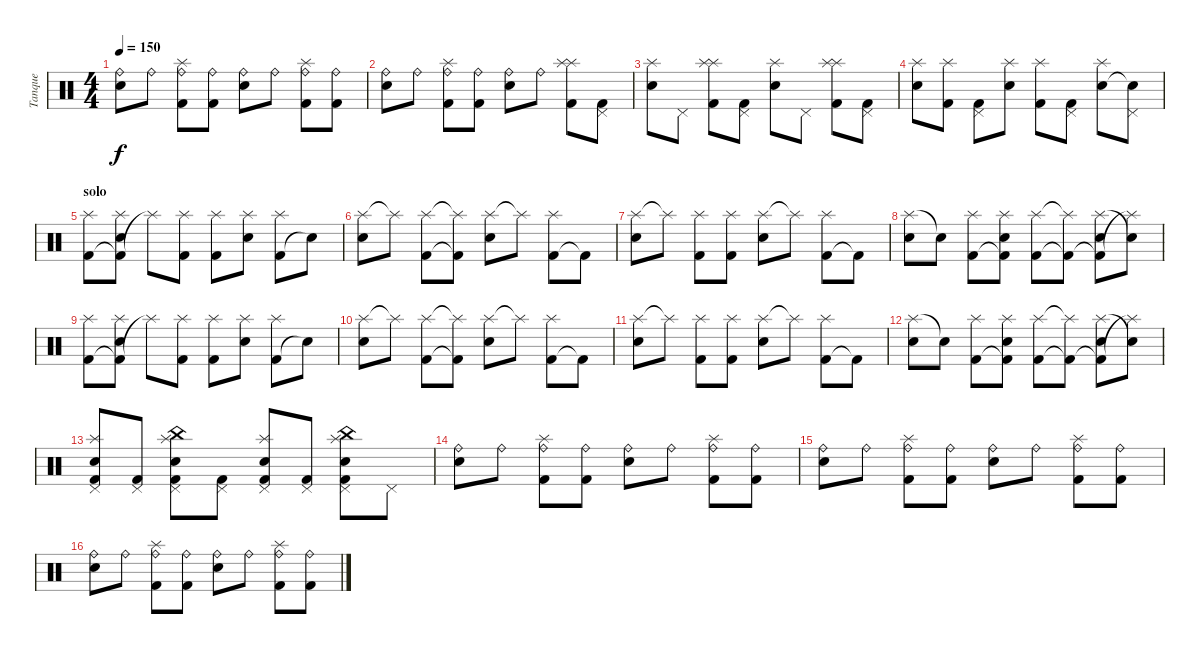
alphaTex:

\track ("Tanque" "Tanque") {instrument percussion}
\staff {score}
\articulation defaults
\ts (4 4)
\tempo 150
\clef neutral
\ks c
("Ride (bell)" "Snare (hit) 2").8{dy f} "Ride (bell)".8 ("Ride (bell)" "Kick (hit) 2" "Splash (hit)").8 ("Ride (bell)" "Kick (hit) 2").8 ("Ride (bell)" "Snare (hit) 2").8 "Ride (bell)".8 ("Ride (bell)" "Kick (hit) 2" "Splash (hit)").8 ("Ride (bell)" "Kick (hit) 2").8 |
("Ride (bell)" "Snare (hit) 2").8 "Ride (bell)".8 ("Ride (bell)" "Kick (hit) 2" "Splash (hit)").8 ("Ride (bell)" "Kick (hit) 2").8 ("Ride (bell)" "Snare (hit) 2").8 "Ride (bell)".8 ("Splash (hit)" "Kick (hit) 2" "Splash (hit)").8 ("Pedal Hi-Hat (hit)" "Kick (hit) 2").8 |
("Splash (hit)" "Snare (hit) 2").8 "Pedal Hi-Hat (hit)".8 ("Splash (hit)" "Kick (hit) 2" "Splash (hit)").8 ("Pedal Hi-Hat (hit)" "Kick (hit) 2").8 ("Splash (hit)" "Snare (hit) 2").8 "Pedal Hi-Hat (hit)".8 ("Splash (hit)" "Kick (hit) 2" "Splash (hit)").8 ("Pedal Hi-Hat (hit)" "Kick (hit) 2").8 |
("Splash (hit)" "Snare (hit) 2").8 ("Splash (hit)" "Kick (hit) 2").8 ("Pedal Hi-Hat (hit)" "Kick (hit) 2").8 ("Splash (hit)" "Snare (hit) 2").8 ("Splash (hit)" "Kick (hit) 2").8 ("Pedal Hi-Hat (hit)" "Kick (hit) 2").8 ("Splash (hit)" "Snare (hit) 2").8 ("Pedal Hi-Hat (hit)" "Snare (hit) 2"{t}).8 |
\section ("" "solo")
("Kick (hit) 2" "Splash (hit)").8 ("Kick (hit) 2"{t} "Splash (hit)" "Snare (hit) 2").8 "Splash (hit)"{t}.8 ("Kick (hit) 2" "Splash (hit)").8 ("Kick (hit) 2" "Splash (hit)").8 ("Splash (hit)" "Snare (hit) 2").8 ("Kick (hit) 2" "Splash (hit)").8 "Snare (hit)"{t}.8 |
("Splash (hit)" "Snare (hit) 2").8 "Splash (hit)"{t}.8 ("Kick (hit) 2" "Splash (hit)").8 ("Kick (hit) 2"{t} "Splash (hit)"{t}).8 ("Splash (hit)" "Snare (hit) 2").8 "Splash (hit)"{t}.8 ("Kick (hit) 2" "Splash (hit)").8 "Kick (hit) 2"{t}.8 |
("Splash (hit)" "Snare (hit) 2").8 "Splash (hit)"{t}.8 ("Kick (hit) 2" "Splash (hit)").8 ("Kick (hit) 2" "Splash (hit)").8 ("Splash (hit)" "Snare (hit) 2").8 "Splash (hit)"{t}.8 ("Kick (hit) 2" "Splash (hit)").8 "Kick (hit) 2"{t}.8 |
("Splash (hit)" "Snare (hit) 2").8 "Snare (hit)"{t}.8 ("Kick (hit) 2" "Splash (hit)").8 ("Kick (hit) 2"{t} "Splash (hit)" "Snare (hit) 2").8 ("Kick (hit) 2" "Splash (hit)").8 ("Kick (hit) 2"{t} "Splash (hit)"{t}).8 ("Kick (hit) 2"{t} "Splash (hit)" "Snare (hit) 2").8 ("Splash (hit)"{t} "Snare (hit) 2"{t}).8 |
("Kick (hit) 2" "Splash (hit)").8 ("Kick (hit) 2"{t} "Splash (hit)" "Snare (hit) 2").8 "Splash (hit)"{t}.8 ("Kick (hit) 2" "Splash (hit)").8 ("Kick (hit) 2" "Splash (hit)").8 ("Splash (hit)" "Snare (hit) 2").8 ("Kick (hit) 2" "Splash (hit)").8 "Snare (hit)"{t}.8 |
("Splash (hit)" "Snare (hit) 2").8 "Splash (hit)"{t}.8 ("Kick (hit) 2" "Splash (hit)").8 ("Kick (hit) 2"{t} "Splash (hit)"{t}).8 ("Splash (hit)" "Snare (hit) 2").8 "Splash (hit)"{t}.8 ("Kick (hit) 2" "Splash (hit)").8 "Kick (hit) 2"{t}.8 |
("Splash (hit)" "Snare (hit) 2").8 "Splash (hit)"{t}.8 ("Kick (hit) 2" "Splash (hit)").8 ("Kick (hit) 2" "Splash (hit)").8 ("Splash (hit)" "Snare (hit) 2").8 "Splash (hit)"{t}.8 ("Kick (hit) 2" "Splash (hit)").8 "Kick (hit) 2"{t}.8 |
("Splash (hit)" "Snare (hit) 2").8 "Snare (hit)"{t}.8 ("Kick (hit) 2" "Splash (hit)").8 ("Kick (hit) 2"{t} "Splash (hit)" "Snare (hit) 2").8 ("Kick (hit) 2" "Splash (hit)").8 ("Kick (hit) 2"{t} "Splash (hit)"{t}).8 ("Kick (hit) 2"{t} "Splash (hit)" "Snare (hit) 2").8 ("Splash (hit)"{t} "Snare (hit) 2"{t}).8 |
("Pedal Hi-Hat (hit)" "Kick (hit) 2" "Snare (hit) 2" "Splash (hit)").8 ("Pedal Hi-Hat (hit)" "Kick (hit) 2").8 ("Pedal Hi-Hat (hit)" "Kick (hit) 2" "Snare (hit) 2" "Splash (hit)" "China (hit)").8 ("Pedal Hi-Hat (hit)" "Kick (hit) 2").8 ("Pedal Hi-Hat (hit)" "Kick (hit) 2" "Snare (hit) 2" "Splash (hit)").8 ("Pedal Hi-Hat (hit)" "Kick (hit) 2").8 ("Pedal Hi-Hat (hit)" "Kick (hit) 2" "Snare (hit) 2" "Splash (hit)" "China (hit)").8 "Pedal Hi-Hat (hit)".8 |
("Ride (bell)" "Snare (hit) 2").8 "Ride (bell)".8 ("Ride (bell)" "Kick (hit) 2" "Splash (hit)").8 ("Ride (bell)" "Kick (hit) 2").8 ("Ride (bell)" "Snare (hit) 2").8 "Ride (bell)".8 ("Ride (bell)" "Kick (hit) 2" "Splash (hit)").8 ("Ride (bell)" "Kick (hit) 2").8 |
("Ride (bell)" "Snare (hit) 2").8 "Ride (bell)".8 ("Ride (bell)" "Kick (hit) 2" "Splash (hit)").8 ("Ride (bell)" "Kick (hit) 2").8 ("Ride (bell)" "Snare (hit) 2").8 "Ride (bell)".8 ("Ride (bell)" "Kick (hit) 2" "Splash (hit)").8 ("Ride (bell)" "Kick (hit) 2").8 |
("Ride (bell)" "Snare (hit) 2").8 "Ride (bell)".8 ("Ride (bell)" "Kick (hit) 2" "Splash (hit)").8 ("Ride (bell)" "Kick (hit) 2").8 ("Ride (bell)" "Snare (hit) 2").8 "Ride (bell)".8 ("Ride (bell)" "Kick (hit) 2" "Splash (hit)").8 ("Ride (bell)" "Kick (hit) 2").8
